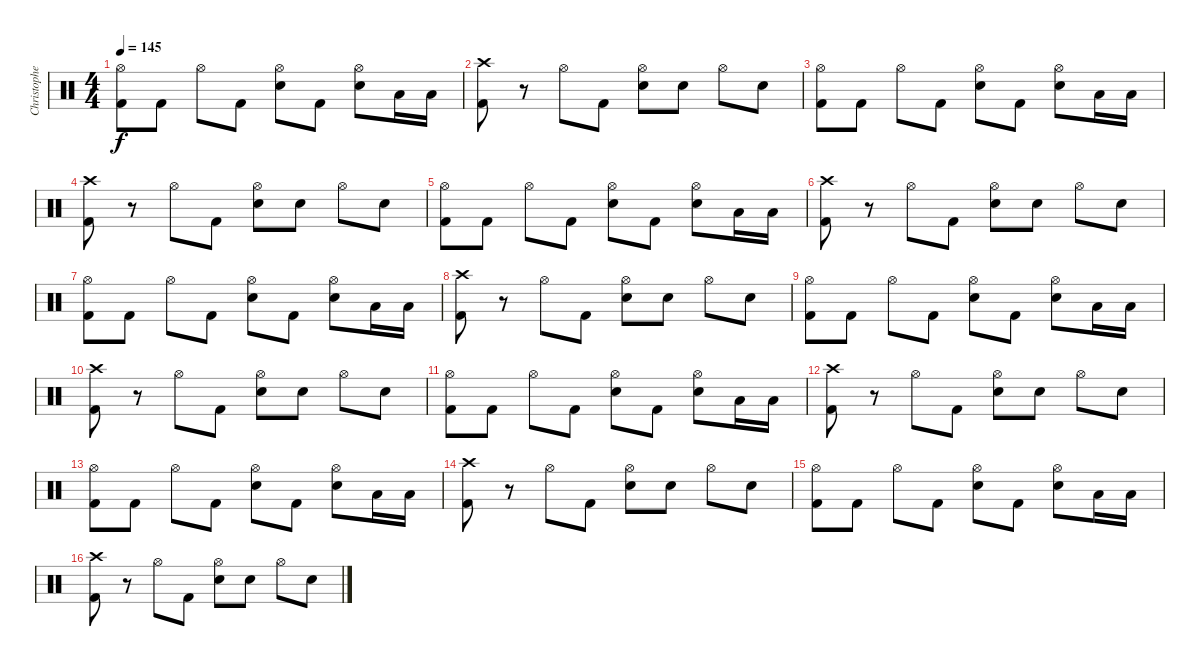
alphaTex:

\track ("Christopher - Drums" "Christophe") {instrument percussion}
\staff {score}
\articulation defaults
\ts (4 4)
\tempo 145
\clef neutral
\ks c
("Hi-Hat (open)" "Kick (hit) 2").8{dy f} "Kick (hit) 2".8 "Hi-Hat (open)".8 "Kick (hit) 2".8 ("Hi-Hat (open)" "Electric Snare (hit)").8 "Kick (hit) 2".8 ("Hi-Hat (open)" "Electric Snare (hit)").8 "Low Tom (hit)".16 "Low Tom (hit)".16 |
("Crash high (hit)" "Kick (hit) 2").8 r.8 "Hi-Hat (open)".8 "Kick (hit) 2".8 ("Hi-Hat (open)" "Electric Snare (hit)").8 "Electric Snare (hit)".8 "Hi-Hat (open)".8 "Electric Snare (hit)".8 |
("Hi-Hat (open)" "Kick (hit) 2").8 "Kick (hit) 2".8 "Hi-Hat (open)".8 "Kick (hit) 2".8 ("Hi-Hat (open)" "Electric Snare (hit)").8 "Kick (hit) 2".8 ("Hi-Hat (open)" "Electric Snare (hit)").8 "Low Tom (hit)".16 "Low Tom (hit)".16 |
("Crash high (hit)" "Kick (hit) 2").8 r.8 "Hi-Hat (open)".8 "Kick (hit) 2".8 ("Hi-Hat (open)" "Electric Snare (hit)").8 "Electric Snare (hit)".8 "Hi-Hat (open)".8 "Electric Snare (hit)".8 |
("Hi-Hat (open)" "Kick (hit) 2").8 "Kick (hit) 2".8 "Hi-Hat (open)".8 "Kick (hit) 2".8 ("Hi-Hat (open)" "Electric Snare (hit)").8 "Kick (hit) 2".8 ("Hi-Hat (open)" "Electric Snare (hit)").8 "Low Tom (hit)".16 "Low Tom (hit)".16 |
("Crash high (hit)" "Kick (hit) 2").8 r.8 "Hi-Hat (open)".8 "Kick (hit) 2".8 ("Hi-Hat (open)" "Electric Snare (hit)").8 "Electric Snare (hit)".8 "Hi-Hat (open)".8 "Electric Snare (hit)".8 |
("Hi-Hat (open)" "Kick (hit) 2").8 "Kick (hit) 2".8 "Hi-Hat (open)".8 "Kick (hit) 2".8 ("Hi-Hat (open)" "Electric Snare (hit)").8 "Kick (hit) 2".8 ("Hi-Hat (open)" "Electric Snare (hit)").8 "Low Tom (hit)".16 "Low Tom (hit)".16 |
("Crash high (hit)" "Kick (hit) 2").8 r.8 "Hi-Hat (open)".8 "Kick (hit) 2".8 ("Hi-Hat (open)" "Electric Snare (hit)").8 "Electric Snare (hit)".8 "Hi-Hat (open)".8 "Electric Snare (hit)".8 |
("Hi-Hat (open)" "Kick (hit) 2").8 "Kick (hit) 2".8 "Hi-Hat (open)".8 "Kick (hit) 2".8 ("Hi-Hat (open)" "Electric Snare (hit)").8 "Kick (hit) 2".8 ("Hi-Hat (open)" "Electric Snare (hit)").8 "Low Tom (hit)".16 "Low Tom (hit)".16 |
("Crash high (hit)" "Kick (hit) 2").8 r.8 "Hi-Hat (open)".8 "Kick (hit) 2".8 ("Hi-Hat (open)" "Electric Snare (hit)").8 "Electric Snare (hit)".8 "Hi-Hat (open)".8 "Electric Snare (hit)".8 |
("Hi-Hat (open)" "Kick (hit) 2").8 "Kick (hit) 2".8 "Hi-Hat (open)".8 "Kick (hit) 2".8 ("Hi-Hat (open)" "Electric Snare (hit)").8 "Kick (hit) 2".8 ("Hi-Hat (open)" "Electric Snare (hit)").8 "Low Tom (hit)".16 "Low Tom (hit)".16 |
("Crash high (hit)" "Kick (hit) 2").8 r.8 "Hi-Hat (open)".8 "Kick (hit) 2".8 ("Hi-Hat (open)" "Electric Snare (hit)").8 "Electric Snare (hit)".8 "Hi-Hat (open)".8 "Electric Snare (hit)".8 |
("Hi-Hat (open)" "Kick (hit) 2").8 "Kick (hit) 2".8 "Hi-Hat (open)".8 "Kick (hit) 2".8 ("Hi-Hat (open)" "Electric Snare (hit)").8 "Kick (hit) 2".8 ("Hi-Hat (open)" "Electric Snare (hit)").8 "Low Tom (hit)".16 "Low Tom (hit)".16 |
("Crash high (hit)" "Kick (hit) 2").8 r.8 "Hi-Hat (open)".8 "Kick (hit) 2".8 ("Hi-Hat (open)" "Electric Snare (hit)").8 "Electric Snare (hit)".8 "Hi-Hat (open)".8 "Electric Snare (hit)".8 |
("Hi-Hat (open)" "Kick (hit) 2").8 "Kick (hit) 2".8 "Hi-Hat (open)".8 "Kick (hit) 2".8 ("Hi-Hat (open)" "Electric Snare (hit)").8 "Kick (hit) 2".8 ("Hi-Hat (open)" "Electric Snare (hit)").8 "Low Tom (hit)".16 "Low Tom (hit)".16 |
("Crash high (hit)" "Kick (hit) 2").8 r.8 "Hi-Hat (open)".8 "Kick (hit) 2".8 ("Hi-Hat (open)" "Electric Snare (hit)").8 "Electric Snare (hit)".8 "Hi-Hat (open)".8 "Electric Snare (hit)".8
